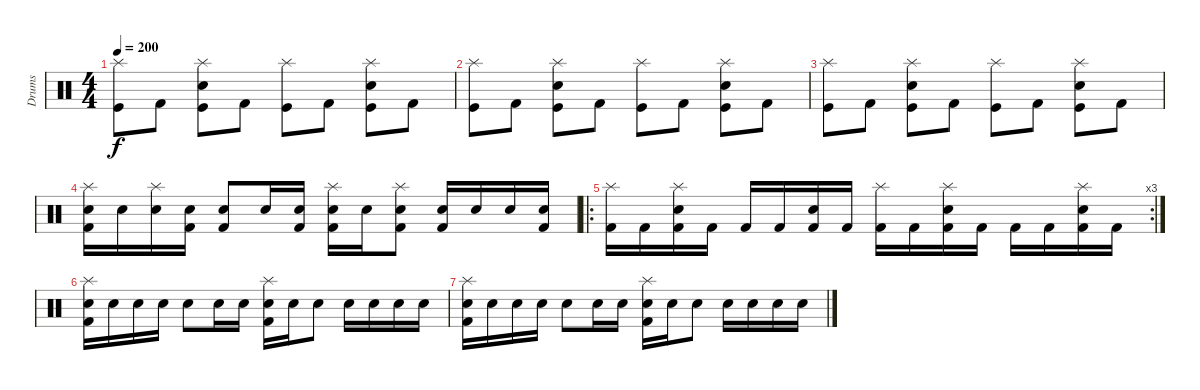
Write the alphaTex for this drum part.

\track ("Drums" "Drums") {instrument percussion}
\staff {score}
\articulation defaults
\ts (4 4)
\tempo 200
\clef neutral
\ks c
("Splash (hit)" "Kick (hit)").8{dy f} "Kick (hit) 2".8 ("Splash (hit)" "Electric Snare (hit)" "Kick (hit)").8 "Kick (hit) 2".8 ("Splash (hit)" "Kick (hit)").8 "Kick (hit) 2".8 ("Splash (hit)" "Electric Snare (hit)" "Kick (hit)").8 "Kick (hit) 2".8 |
("Splash (hit)" "Kick (hit)").8 "Kick (hit) 2".8 ("Splash (hit)" "Electric Snare (hit)" "Kick (hit)").8 "Kick (hit) 2".8 ("Splash (hit)" "Kick (hit)").8 "Kick (hit) 2".8 ("Splash (hit)" "Electric Snare (hit)" "Kick (hit)").8 "Kick (hit) 2".8 |
("Splash (hit)" "Kick (hit)").8 "Kick (hit) 2".8 ("Splash (hit)" "Electric Snare (hit)" "Kick (hit)").8 "Kick (hit) 2".8 ("Splash (hit)" "Kick (hit)").8 "Kick (hit) 2".8 ("Splash (hit)" "Electric Snare (hit)" "Kick (hit)").8 "Kick (hit) 2".8 |
("Kick (hit) 2" "Splash (hit)" "Snare (hit) 2").16 "Snare (hit) 2".16 ("Splash (hit)" "Snare (hit) 2").16 ("Kick (hit) 2" "Snare (hit) 2").16 ("Kick (hit) 2" "Snare (hit) 2").8 "Snare (hit) 2".16 ("Kick (hit) 2" "Snare (hit) 2").16 ("Kick (hit) 2" "Splash (hit)" "Snare (hit) 2").16 "Snare (hit) 2".16 ("Kick (hit) 2" "Splash (hit)" "Snare (hit) 2").8 ("Kick (hit) 2" "Snare (hit) 2").16 "Snare (hit) 2".16 "Snare (hit) 2".16 ("Kick (hit) 2" "Snare (hit) 2").16 |
\ro
\rc 3
("Kick (hit) 2" "Splash (hit)").16 "Kick (hit) 2".16 ("Kick (hit) 2" "Snare (hit) 2" "Splash (hit)").16 "Kick (hit) 2".16 "Kick (hit) 2".16 "Kick (hit) 2".16 ("Kick (hit) 2" "Snare (hit) 2").16 "Kick (hit) 2".16 ("Kick (hit) 2" "Splash (hit)").16 "Kick (hit) 2".16 ("Kick (hit) 2" "Snare (hit) 2" "Splash (hit)").16 "Kick (hit) 2".16 "Kick (hit) 2".16 "Kick (hit) 2".16 ("Kick (hit) 2" "Snare (hit) 2" "Splash (hit)").16 "Kick (hit) 2".16 |
("Kick (hit) 2" "Splash (hit)" "Snare (hit) 2").16 "Snare (hit) 2".16 "Snare (hit) 2".16 "Snare (hit) 2".16 "Snare (hit) 2".8 "Snare (hit) 2".16 "Snare (hit) 2".16 ("Kick (hit) 2" "Splash (hit)" "Snare (hit) 2").16 "Snare (hit) 2".16 "Snare (hit) 2".8 "Snare (hit) 2".16 "Snare (hit) 2".16 "Snare (hit) 2".16 "Snare (hit) 2".16 |
("Kick (hit) 2" "Splash (hit)" "Snare (hit) 2").16 "Snare (hit) 2".16 "Snare (hit) 2".16 "Snare (hit) 2".16 "Snare (hit) 2".8 "Snare (hit) 2".16 "Snare (hit) 2".16 ("Kick (hit) 2" "Splash (hit)" "Snare (hit) 2").16 "Snare (hit) 2".16 "Snare (hit) 2".8 "Snare (hit) 2".16 "Snare (hit) 2".16 "Snare (hit) 2".16 "Snare (hit) 2".16
